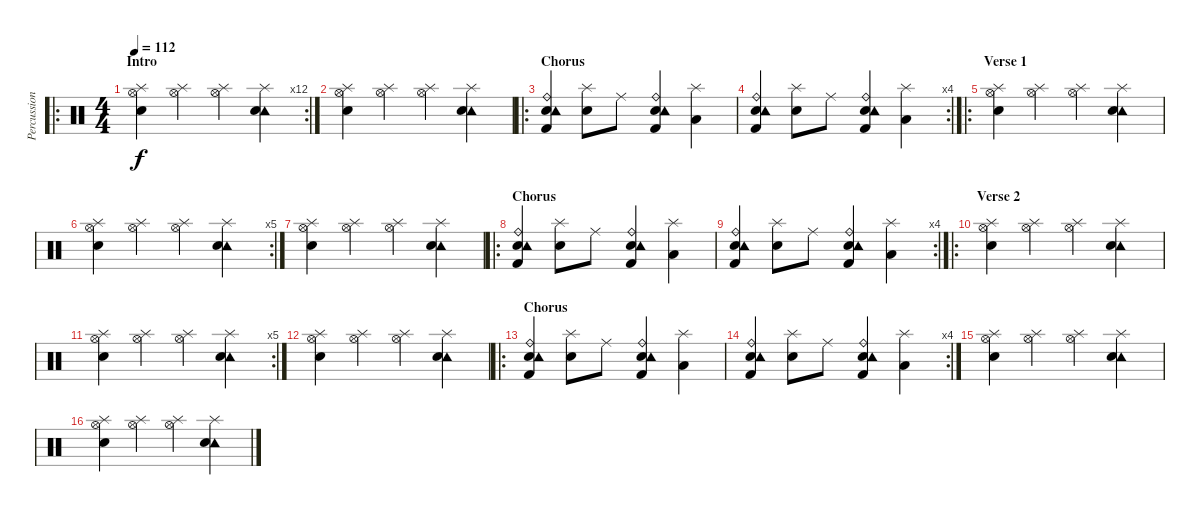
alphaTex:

\track ("Percussion" "Percussion") {instrument percussion}
\staff {score}
\articulation defaults
\ro
\rc 12
\ts (4 4)
\section ("" "Intro")
\tempo 112
\clef neutral
\ks c
("Hi-Hat (open)" "Splash (hit)" "Snare (hit) 2").4{dy f} ("Hi-Hat (open)" "Splash (hit)").4 ("Hi-Hat (open)" "Splash (hit)").4 ("Tambourine (hit)" "Splash (hit)" "Snare (hit) 2").4 |
("Hi-Hat (open)" "Splash (hit)" "Snare (hit) 2").4 ("Hi-Hat (open)" "Splash (hit)").4 ("Hi-Hat (open)" "Splash (hit)").4 ("Tambourine (hit)" "Splash (hit)" "Snare (hit) 2").4 |
\ro
\section ("" "Chorus")
("Snare (hit) 2" "Ride (bell)" "Tambourine (hit)" "Kick (hit) 2").4 ("Splash (hit)" "Electric Snare (hit)").8 "Ride (middle)".8 ("Snare (hit) 2" "Ride (bell)" "Tambourine (hit)" "Kick (hit) 2").4 ("Splash (hit)" "Low Floor Tom (hit)").4 |
\rc 4
("Snare (hit) 2" "Ride (bell)" "Tambourine (hit)" "Kick (hit) 2").4 ("Splash (hit)" "Electric Snare (hit)").8 "Ride (middle)".8 ("Snare (hit) 2" "Ride (bell)" "Tambourine (hit)" "Kick (hit) 2").4 ("Splash (hit)" "Low Floor Tom (hit)").4 |
\ro
\section ("" "Verse 1")
("Hi-Hat (open)" "Splash (hit)" "Snare (hit) 2").4 ("Hi-Hat (open)" "Splash (hit)").4 ("Hi-Hat (open)" "Splash (hit)").4 ("Tambourine (hit)" "Splash (hit)" "Snare (hit) 2").4 |
\rc 5
("Hi-Hat (open)" "Splash (hit)" "Snare (hit) 2").4 ("Hi-Hat (open)" "Splash (hit)").4 ("Hi-Hat (open)" "Splash (hit)").4 ("Tambourine (hit)" "Splash (hit)" "Snare (hit) 2").4 |
("Hi-Hat (open)" "Splash (hit)" "Snare (hit) 2").4 ("Hi-Hat (open)" "Splash (hit)").4 ("Hi-Hat (open)" "Splash (hit)").4 ("Tambourine (hit)" "Splash (hit)" "Snare (hit) 2").4 |
\ro
\section ("" "Chorus")
("Snare (hit) 2" "Ride (bell)" "Tambourine (hit)" "Kick (hit) 2").4 ("Splash (hit)" "Electric Snare (hit)").8 "Ride (middle)".8 ("Snare (hit) 2" "Ride (bell)" "Tambourine (hit)" "Kick (hit) 2").4 ("Splash (hit)" "Low Floor Tom (hit)").4 |
\rc 4
("Snare (hit) 2" "Ride (bell)" "Tambourine (hit)" "Kick (hit) 2").4 ("Splash (hit)" "Electric Snare (hit)").8 "Ride (middle)".8 ("Snare (hit) 2" "Ride (bell)" "Tambourine (hit)" "Kick (hit) 2").4 ("Splash (hit)" "Low Floor Tom (hit)").4 |
\ro
\section ("" "Verse 2")
("Hi-Hat (open)" "Splash (hit)" "Snare (hit) 2").4 ("Hi-Hat (open)" "Splash (hit)").4 ("Hi-Hat (open)" "Splash (hit)").4 ("Tambourine (hit)" "Splash (hit)" "Snare (hit) 2").4 |
\rc 5
("Hi-Hat (open)" "Splash (hit)" "Snare (hit) 2").4 ("Hi-Hat (open)" "Splash (hit)").4 ("Hi-Hat (open)" "Splash (hit)").4 ("Tambourine (hit)" "Splash (hit)" "Snare (hit) 2").4 |
("Hi-Hat (open)" "Splash (hit)" "Snare (hit) 2").4 ("Hi-Hat (open)" "Splash (hit)").4 ("Hi-Hat (open)" "Splash (hit)").4 ("Tambourine (hit)" "Splash (hit)" "Snare (hit) 2").4 |
\ro
\section ("" "Chorus")
("Snare (hit) 2" "Ride (bell)" "Tambourine (hit)" "Kick (hit) 2").4 ("Splash (hit)" "Electric Snare (hit)").8 "Ride (middle)".8 ("Snare (hit) 2" "Ride (bell)" "Tambourine (hit)" "Kick (hit) 2").4 ("Splash (hit)" "Low Floor Tom (hit)").4 |
\rc 4
("Snare (hit) 2" "Ride (bell)" "Tambourine (hit)" "Kick (hit) 2").4 ("Splash (hit)" "Electric Snare (hit)").8 "Ride (middle)".8 ("Snare (hit) 2" "Ride (bell)" "Tambourine (hit)" "Kick (hit) 2").4 ("Splash (hit)" "Low Floor Tom (hit)").4 |
("Hi-Hat (open)" "Splash (hit)" "Snare (hit) 2").4 ("Hi-Hat (open)" "Splash (hit)").4 ("Hi-Hat (open)" "Splash (hit)").4 ("Tambourine (hit)" "Splash (hit)" "Snare (hit) 2").4 |
("Hi-Hat (open)" "Splash (hit)" "Snare (hit) 2").4 ("Hi-Hat (open)" "Splash (hit)").4 ("Hi-Hat (open)" "Splash (hit)").4 ("Tambourine (hit)" "Splash (hit)" "Snare (hit) 2").4
